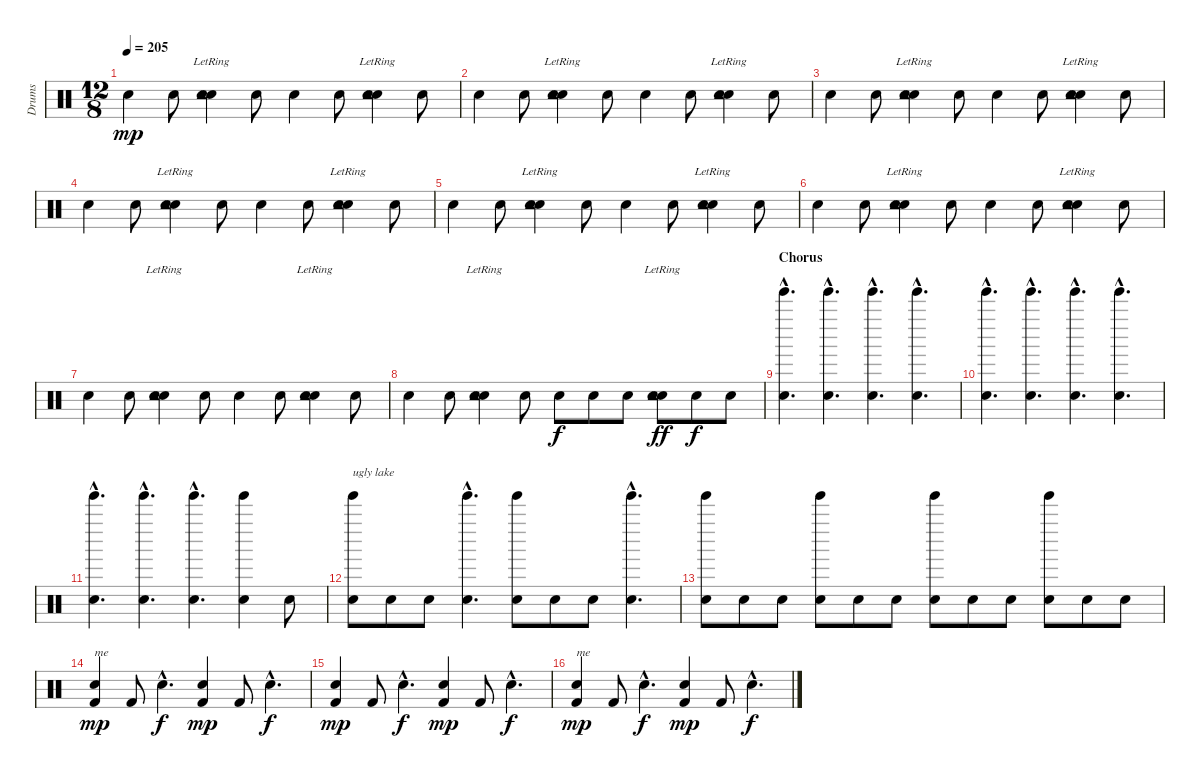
\track ("Drums" "Drums") {instrument percussion}
\staff {score}
\articulation defaults
\ts (12 8)
\tempo 205
\clef neutral
\ks c "Snare (hit) 2".4{dy mp} "Snare (hit) 2".8
("Hand Clap (hit)"{lr} "Tambourine (hit)"{lr} "Snare (hit) 2").4 "Snare (hit) 2".8 "Snare (hit) 2".4 "Snare (hit) 2".8 ("Hand Clap (hit)"{lr} "Tambourine (hit)"{lr} "Snare (hit) 2").4 "Snare (hit) 2".8 |
"Snare (hit) 2".4 "Snare (hit) 2".8 ("Hand Clap (hit)"{lr} "Tambourine (hit)"{lr} "Snare (hit) 2").4 "Snare (hit) 2".8 "Snare (hit) 2".4 "Snare (hit) 2".8 ("Hand Clap (hit)"{lr} "Tambourine (hit)"{lr} "Snare (hit) 2").4 "Snare (hit) 2".8 |
"Snare (hit) 2".4 "Snare (hit) 2".8 ("Hand Clap (hit)"{lr} "Tambourine (hit)"{lr} "Snare (hit) 2").4 "Snare (hit) 2".8 "Snare (hit) 2".4 "Snare (hit) 2".8 ("Hand Clap (hit)"{lr} "Tambourine (hit)"{lr} "Snare (hit) 2").4 "Snare (hit) 2".8 |
"Snare (hit) 2".4 "Snare (hit) 2".8 ("Hand Clap (hit)"{lr} "Tambourine (hit)"{lr} "Snare (hit) 2").4 "Snare (hit) 2".8 "Snare (hit) 2".4 "Snare (hit) 2".8 ("Hand Clap (hit)"{lr} "Tambourine (hit)"{lr} "Snare (hit) 2").4 "Snare (hit) 2".8 |
"Snare (hit) 2".4 "Snare (hit) 2".8 ("Hand Clap (hit)"{lr} "Tambourine (hit)"{lr} "Snare (hit) 2").4 "Snare (hit) 2".8 "Snare (hit) 2".4 "Snare (hit) 2".8 ("Hand Clap (hit)"{lr} "Tambourine (hit)"{lr} "Snare (hit) 2").4 "Snare (hit) 2".8 |
"Snare (hit) 2".4 "Snare (hit) 2".8 ("Hand Clap (hit)"{lr} "Tambourine (hit)"{lr} "Snare (hit) 2").4 "Snare (hit) 2".8 "Snare (hit) 2".4 "Snare (hit) 2".8 ("Hand Clap (hit)"{lr} "Tambourine (hit)"{lr} "Snare (hit) 2").4 "Snare (hit) 2".8 |
"Snare (hit) 2".4 "Snare (hit) 2".8 ("Hand Clap (hit)"{lr} "Tambourine (hit)"{lr} "Snare (hit) 2").4 "Snare (hit) 2".8 "Snare (hit) 2".4 "Snare (hit) 2".8 ("Hand Clap (hit)"{lr} "Tambourine (hit)"{lr} "Snare (hit) 2").4 "Snare (hit) 2".8 |
"Snare (hit) 2".4 "Snare (hit) 2".8 ("Hand Clap (hit)"{lr} "Tambourine (hit)"{lr} "Snare (hit) 2").4 "Snare (hit) 2".8 "Snare (hit) 2".8{dy f} "Snare (hit) 2".8 "Snare (hit) 2".8 ("Hand Clap (hit)"{lr} "Tambourine (hit)"{lr} "Snare (hit) 2").8{dy ff} "Snare (hit) 2".8{dy f} "Snare (hit) 2".8 |
\section ("" "Chorus")
("Tinkle Bell (hit)"{hac} "Snare (hit) 2"{hac}).4{d} ("Tinkle Bell (hit)"{hac} "Snare (hit) 2"{hac}).4{d} ("Tinkle Bell (hit)"{hac} "Snare (hit) 2"{hac}).4{d} ("Tinkle Bell (hit)"{hac} "Snare (hit) 2"{hac}).4{d} |
("Tinkle Bell (hit)"{hac} "Snare (hit) 2"{hac}).4{d} ("Tinkle Bell (hit)"{hac} "Snare (hit) 2"{hac}).4{d} ("Tinkle Bell (hit)"{hac} "Snare (hit) 2"{hac}).4{d} ("Tinkle Bell (hit)"{hac} "Snare (hit) 2"{hac}).4{d} |
("Tinkle Bell (hit)"{hac} "Snare (hit) 2"{hac}).4{d} ("Tinkle Bell (hit)"{hac} "Snare (hit) 2"{hac}).4{d} ("Tinkle Bell (hit)"{hac} "Snare (hit) 2"{hac}).4{d} ("Tinkle Bell (hit)" "Snare (hit) 2").4 "Snare (hit) 2".8 |
("Tinkle Bell (hit)" "Snare (hit) 2").8{txt "ugly lake"} "Snare (hit) 2".8 "Snare (hit) 2".8 ("Tinkle Bell (hit)"{hac} "Snare (hit) 2"{hac}).4{d} ("Tinkle Bell (hit)" "Snare (hit) 2").8 "Snare (hit) 2".8 "Snare (hit) 2".8 ("Tinkle Bell (hit)"{hac} "Snare (hit) 2"{hac}).4{d} |
("Tinkle Bell (hit)" "Snare (hit) 2").8 "Snare (hit) 2".8 "Snare (hit) 2".8 ("Tinkle Bell (hit)" "Snare (hit) 2").8 "Snare (hit) 2".8 "Snare (hit) 2".8 ("Tinkle Bell (hit)" "Snare (hit) 2").8 "Snare (hit) 2".8 "Snare (hit) 2".8 ("Tinkle Bell (hit)" "Snare (hit) 2").8 "Snare (hit) 2".8 "Snare (hit) 2".8 |
("Snare (hit) 2" "Kick (hit) 2").4{txt "me" dy mp} "Kick (hit) 2".8 "Snare (hit) 2"{hac}.4{d dy f} ("Snare (hit) 2" "Kick (hit) 2").4{dy mp} "Kick (hit) 2".8 "Snare (hit) 2"{hac}.4{d dy f} |
("Snare (hit) 2" "Kick (hit) 2").4{dy mp} "Kick (hit) 2".8 "Snare (hit) 2"{hac}.4{d dy f} ("Snare (hit) 2" "Kick (hit) 2").4{dy mp} "Kick (hit) 2".8 "Snare (hit) 2"{hac}.4{d dy f} |
("Snare (hit) 2" "Kick (hit) 2").4{txt "me" dy mp} "Kick (hit) 2".8 "Snare (hit) 2"{hac}.4{d dy f} ("Snare (hit) 2" "Kick (hit) 2").4{dy mp} "Kick (hit) 2".8 "Snare (hit) 2"{hac}.4{d dy f}
